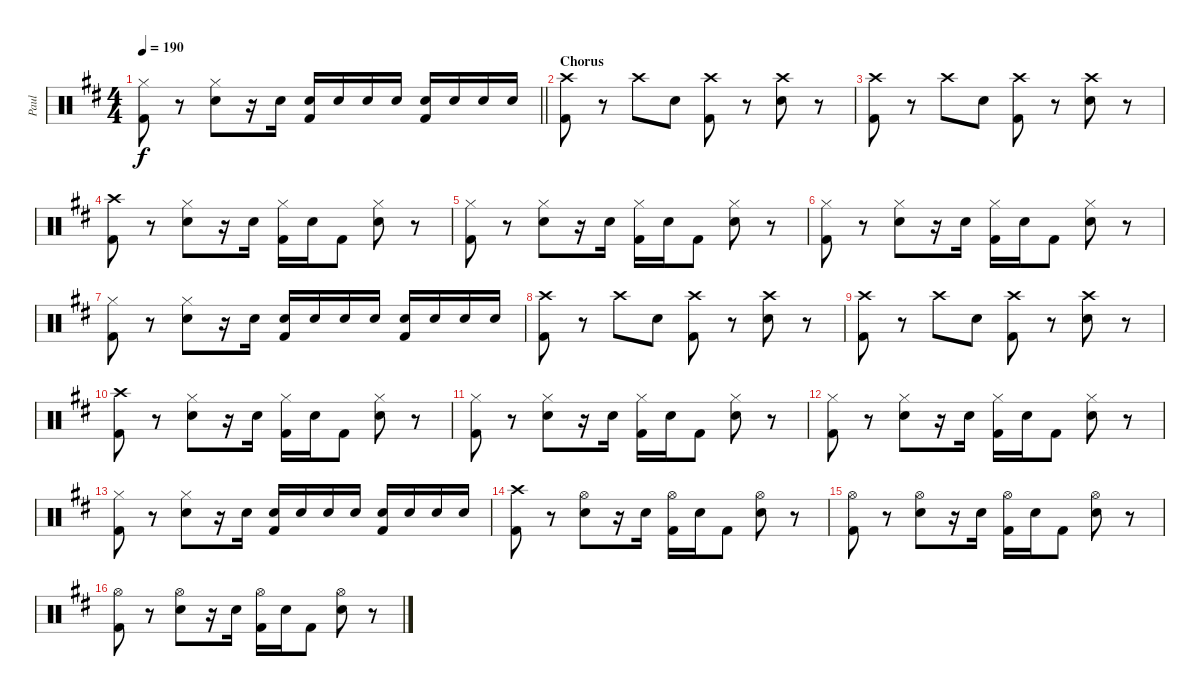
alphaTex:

\track ("Paul" "Paul") {instrument percussion}
\staff {score}
\articulation defaults
\ts (4 4)
\tempo 190
\clef neutral
\barLineRight lightlight
\ks d
("Hi-Hat (closed)" "Kick (hit) 2").8{dy f} r.8 ("Hi-Hat (closed)" "Electric Snare (hit)").8 r.16 "Electric Snare (hit)".16 ("Electric Snare (hit)" "Kick (hit) 2").16 "Electric Snare (hit)".16 "Electric Snare (hit)".16 "Electric Snare (hit)".16 ("Electric Snare (hit)" "Kick (hit) 2").16 "Electric Snare (hit)".16 "Electric Snare (hit)".16 "Electric Snare (hit)".16 |
\section ("" "Chorus")
("Crash high (hit)" "Kick (hit) 2").8 r.8 "Crash high (hit)".8 "Electric Snare (hit)".8 ("Crash high (hit)" "Kick (hit) 2").8 r.8 ("Crash high (hit)" "Electric Snare (hit)").8 r.8 |
("Crash high (hit)" "Kick (hit) 2").8 r.8 "Crash high (hit)".8 "Electric Snare (hit)".8 ("Crash high (hit)" "Kick (hit) 2").8 r.8 ("Crash high (hit)" "Electric Snare (hit)").8 r.8 |
("Crash high (hit)" "Kick (hit) 2").8 r.8 ("Hi-Hat (closed)" "Electric Snare (hit)").8 r.16 "Electric Snare (hit)".16 ("Hi-Hat (closed)" "Kick (hit) 2").16 "Electric Snare (hit)".16 "Kick (hit) 2".8 ("Hi-Hat (closed)" "Electric Snare (hit)").8 r.8 |
("Hi-Hat (closed)" "Kick (hit) 2").8 r.8 ("Hi-Hat (closed)" "Electric Snare (hit)").8 r.16 "Electric Snare (hit)".16 ("Hi-Hat (closed)" "Kick (hit) 2").16 "Electric Snare (hit)".16 "Kick (hit) 2".8 ("Hi-Hat (closed)" "Electric Snare (hit)").8 r.8 |
("Hi-Hat (closed)" "Kick (hit) 2").8 r.8 ("Hi-Hat (closed)" "Electric Snare (hit)").8 r.16 "Electric Snare (hit)".16 ("Hi-Hat (closed)" "Kick (hit) 2").16 "Electric Snare (hit)".16 "Kick (hit) 2".8 ("Hi-Hat (closed)" "Electric Snare (hit)").8 r.8 |
("Hi-Hat (closed)" "Kick (hit) 2").8 r.8 ("Hi-Hat (closed)" "Electric Snare (hit)").8 r.16 "Electric Snare (hit)".16 ("Electric Snare (hit)" "Kick (hit) 2").16 "Electric Snare (hit)".16 "Electric Snare (hit)".16 "Electric Snare (hit)".16 ("Electric Snare (hit)" "Kick (hit) 2").16 "Electric Snare (hit)".16 "Electric Snare (hit)".16 "Electric Snare (hit)".16 |
("Crash high (hit)" "Kick (hit) 2").8 r.8 "Crash high (hit)".8 "Electric Snare (hit)".8 ("Crash high (hit)" "Kick (hit) 2").8 r.8 ("Crash high (hit)" "Electric Snare (hit)").8 r.8 |
("Crash high (hit)" "Kick (hit) 2").8 r.8 "Crash high (hit)".8 "Electric Snare (hit)".8 ("Crash high (hit)" "Kick (hit) 2").8 r.8 ("Crash high (hit)" "Electric Snare (hit)").8 r.8 |
("Crash high (hit)" "Kick (hit) 2").8 r.8 ("Hi-Hat (closed)" "Electric Snare (hit)").8 r.16 "Electric Snare (hit)".16 ("Hi-Hat (closed)" "Kick (hit) 2").16 "Electric Snare (hit)".16 "Kick (hit) 2".8 ("Hi-Hat (closed)" "Electric Snare (hit)").8 r.8 |
("Hi-Hat (closed)" "Kick (hit) 2").8 r.8 ("Hi-Hat (closed)" "Electric Snare (hit)").8 r.16 "Electric Snare (hit)".16 ("Hi-Hat (closed)" "Kick (hit) 2").16 "Electric Snare (hit)".16 "Kick (hit) 2".8 ("Hi-Hat (closed)" "Electric Snare (hit)").8 r.8 |
("Hi-Hat (closed)" "Kick (hit) 2").8 r.8 ("Hi-Hat (closed)" "Electric Snare (hit)").8 r.16 "Electric Snare (hit)".16 ("Hi-Hat (closed)" "Kick (hit) 2").16 "Electric Snare (hit)".16 "Kick (hit) 2".8 ("Hi-Hat (closed)" "Electric Snare (hit)").8 r.8 |
("Hi-Hat (closed)" "Kick (hit) 2").8 r.8 ("Hi-Hat (closed)" "Electric Snare (hit)").8 r.16 "Electric Snare (hit)".16 ("Electric Snare (hit)" "Kick (hit) 2").16 "Electric Snare (hit)".16 "Electric Snare (hit)".16 "Electric Snare (hit)".16 ("Electric Snare (hit)" "Kick (hit) 2").16 "Electric Snare (hit)".16 "Electric Snare (hit)".16 "Electric Snare (hit)".16 |
("Crash high (hit)" "Kick (hit) 2").8 r.8 ("Hi-Hat (open)" "Electric Snare (hit)").8 r.16 "Electric Snare (hit)".16 ("Hi-Hat (open)" "Kick (hit) 2").16 "Electric Snare (hit)".16 "Kick (hit) 2".8 ("Hi-Hat (open)" "Electric Snare (hit)").8 r.8 |
("Hi-Hat (open)" "Kick (hit) 2").8 r.8 ("Hi-Hat (open)" "Electric Snare (hit)").8 r.16 "Electric Snare (hit)".16 ("Hi-Hat (open)" "Kick (hit) 2").16 "Electric Snare (hit)".16 "Kick (hit) 2".8 ("Hi-Hat (open)" "Electric Snare (hit)").8 r.8 |
("Hi-Hat (open)" "Kick (hit) 2").8 r.8 ("Hi-Hat (open)" "Electric Snare (hit)").8 r.16 "Electric Snare (hit)".16 ("Hi-Hat (open)" "Kick (hit) 2").16 "Electric Snare (hit)".16 "Kick (hit) 2".8 ("Hi-Hat (open)" "Electric Snare (hit)").8 r.8
